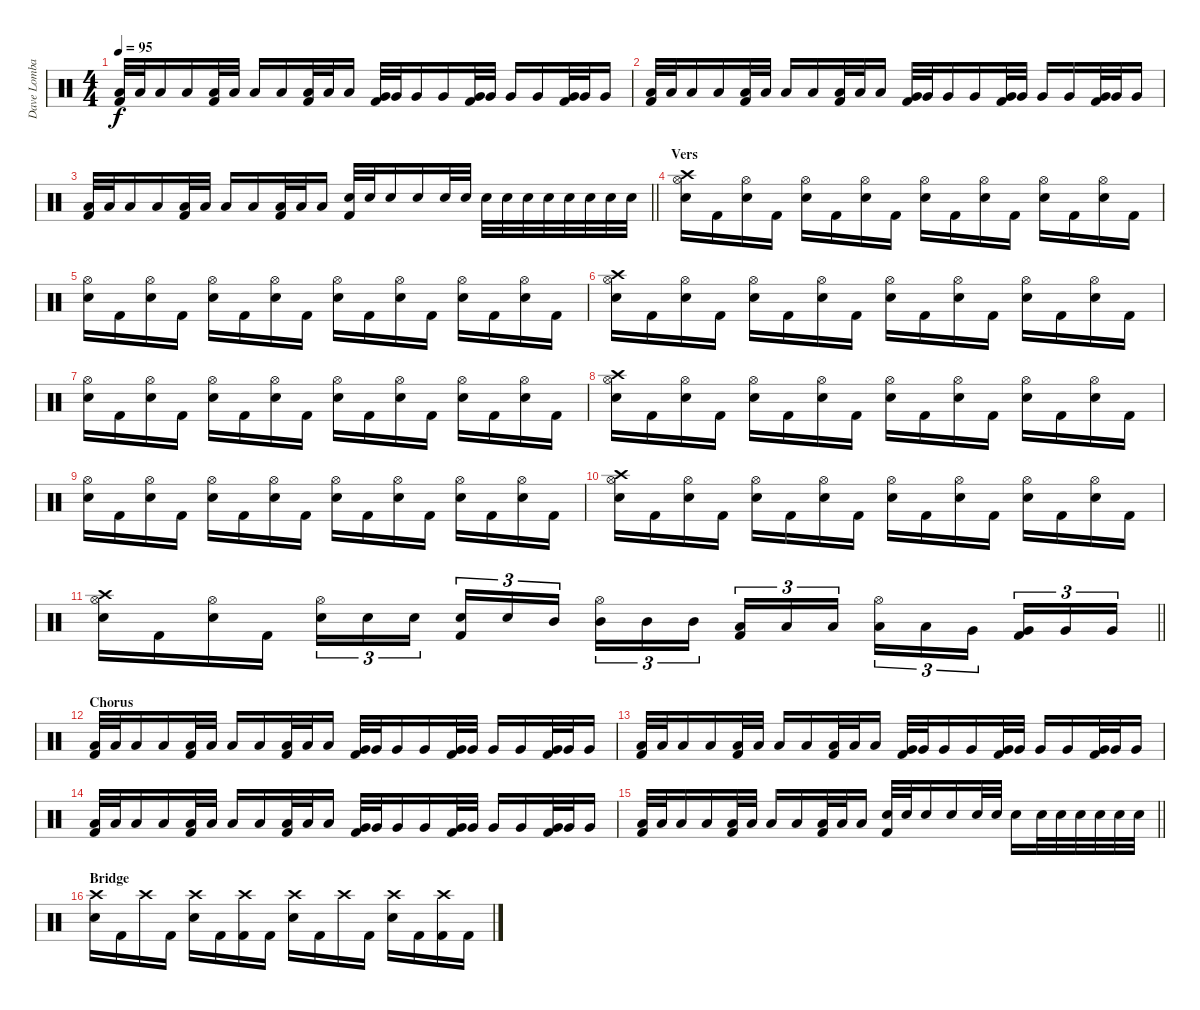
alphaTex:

\track ("Dave Lombardo" "Dave Lomba") {instrument percussion}
\staff {score}
\articulation defaults
\ts (4 4)
\tempo 95
\clef neutral
\ks c
("Low Tom (hit)" "Kick (hit) 2").32{dy f} "Low Tom (hit)".32 "Low Tom (hit)".16 "Low Tom (hit)".16 ("Low Tom (hit)" "Kick (hit) 2").32 "Low Tom (hit)".32 "Low Tom (hit)".16 "Low Tom (hit)".16 ("Low Tom (hit)" "Kick (hit) 2").32 "Low Tom (hit)".32 "Low Tom (hit)".16 ("Very Low Tom (hit)" "Kick (hit) 2").32 "Very Low Tom (hit)".32 "Very Low Tom (hit)".16 "Very Low Tom (hit)".16 ("Very Low Tom (hit)" "Kick (hit) 2").32 "Very Low Tom (hit)".32 "Very Low Tom (hit)".16 "Very Low Tom (hit)".16 ("Very Low Tom (hit)" "Kick (hit) 2").32 "Very Low Tom (hit)".32 "Very Low Tom (hit)".16 |
("Low Tom (hit)" "Kick (hit) 2").32 "Low Tom (hit)".32 "Low Tom (hit)".16 "Low Tom (hit)".16 ("Low Tom (hit)" "Kick (hit) 2").32 "Low Tom (hit)".32 "Low Tom (hit)".16 "Low Tom (hit)".16 ("Low Tom (hit)" "Kick (hit) 2").32 "Low Tom (hit)".32 "Low Tom (hit)".16 ("Very Low Tom (hit)" "Kick (hit) 2").32 "Very Low Tom (hit)".32 "Very Low Tom (hit)".16 "Very Low Tom (hit)".16 ("Very Low Tom (hit)" "Kick (hit) 2").32 "Very Low Tom (hit)".32 "Very Low Tom (hit)".16 "Very Low Tom (hit)".16 ("Very Low Tom (hit)" "Kick (hit) 2").32 "Very Low Tom (hit)".32 "Very Low Tom (hit)".16 |
\barLineRight lightlight
("Low Tom (hit)" "Kick (hit) 2").32 "Low Tom (hit)".32 "Low Tom (hit)".16 "Low Tom (hit)".16 ("Low Tom (hit)" "Kick (hit) 2").32 "Low Tom (hit)".32 "Low Tom (hit)".16 "Low Tom (hit)".16 ("Low Tom (hit)" "Kick (hit) 2").32 "Low Tom (hit)".32 "Low Tom (hit)".16 ("Snare (hit) 2" "Kick (hit) 2").32 "Snare (hit) 2".32 "Snare (hit) 2".16 "Snare (hit) 2".16 "Snare (hit) 2".32 "Snare (hit) 2".32 "Snare (hit) 2".32 "Snare (hit) 2".32 "Snare (hit) 2".32 "Snare (hit) 2".32 "Snare (hit) 2".32 "Snare (hit) 2".32 "Snare (hit) 2".32 "Snare (hit) 2".32 |
\section ("" "Vers")
("Crash high (hit)" "Hi-Hat (open)" "Snare (hit) 2").16 "Kick (hit) 2".16 ("Hi-Hat (open)" "Snare (hit) 2").16 "Kick (hit) 2".16 ("Hi-Hat (open)" "Snare (hit) 2").16 "Kick (hit) 2".16 ("Hi-Hat (open)" "Snare (hit) 2").16 "Kick (hit) 2".16 ("Hi-Hat (open)" "Snare (hit) 2").16 "Kick (hit) 2".16 ("Hi-Hat (open)" "Snare (hit) 2").16 "Kick (hit) 2".16 ("Hi-Hat (open)" "Snare (hit) 2").16 "Kick (hit) 2".16 ("Hi-Hat (open)" "Snare (hit) 2").16 "Kick (hit) 2".16 |
("Hi-Hat (open)" "Snare (hit) 2").16 "Kick (hit) 2".16 ("Hi-Hat (open)" "Snare (hit) 2").16 "Kick (hit) 2".16 ("Hi-Hat (open)" "Snare (hit) 2").16 "Kick (hit) 2".16 ("Hi-Hat (open)" "Snare (hit) 2").16 "Kick (hit) 2".16 ("Hi-Hat (open)" "Snare (hit) 2").16 "Kick (hit) 2".16 ("Hi-Hat (open)" "Snare (hit) 2").16 "Kick (hit) 2".16 ("Hi-Hat (open)" "Snare (hit) 2").16 "Kick (hit) 2".16 ("Hi-Hat (open)" "Snare (hit) 2").16 "Kick (hit) 2".16 |
("Crash high (hit)" "Hi-Hat (open)" "Snare (hit) 2").16 "Kick (hit) 2".16 ("Hi-Hat (open)" "Snare (hit) 2").16 "Kick (hit) 2".16 ("Hi-Hat (open)" "Snare (hit) 2").16 "Kick (hit) 2".16 ("Hi-Hat (open)" "Snare (hit) 2").16 "Kick (hit) 2".16 ("Hi-Hat (open)" "Snare (hit) 2").16 "Kick (hit) 2".16 ("Hi-Hat (open)" "Snare (hit) 2").16 "Kick (hit) 2".16 ("Hi-Hat (open)" "Snare (hit) 2").16 "Kick (hit) 2".16 ("Hi-Hat (open)" "Snare (hit) 2").16 "Kick (hit) 2".16 |
("Hi-Hat (open)" "Snare (hit) 2").16 "Kick (hit) 2".16 ("Hi-Hat (open)" "Snare (hit) 2").16 "Kick (hit) 2".16 ("Hi-Hat (open)" "Snare (hit) 2").16 "Kick (hit) 2".16 ("Hi-Hat (open)" "Snare (hit) 2").16 "Kick (hit) 2".16 ("Hi-Hat (open)" "Snare (hit) 2").16 "Kick (hit) 2".16 ("Hi-Hat (open)" "Snare (hit) 2").16 "Kick (hit) 2".16 ("Hi-Hat (open)" "Snare (hit) 2").16 "Kick (hit) 2".16 ("Hi-Hat (open)" "Snare (hit) 2").16 "Kick (hit) 2".16 |
("Crash high (hit)" "Hi-Hat (open)" "Snare (hit) 2").16 "Kick (hit) 2".16 ("Hi-Hat (open)" "Snare (hit) 2").16 "Kick (hit) 2".16 ("Hi-Hat (open)" "Snare (hit) 2").16 "Kick (hit) 2".16 ("Hi-Hat (open)" "Snare (hit) 2").16 "Kick (hit) 2".16 ("Hi-Hat (open)" "Snare (hit) 2").16 "Kick (hit) 2".16 ("Hi-Hat (open)" "Snare (hit) 2").16 "Kick (hit) 2".16 ("Hi-Hat (open)" "Snare (hit) 2").16 "Kick (hit) 2".16 ("Hi-Hat (open)" "Snare (hit) 2").16 "Kick (hit) 2".16 |
("Hi-Hat (open)" "Snare (hit) 2").16 "Kick (hit) 2".16 ("Hi-Hat (open)" "Snare (hit) 2").16 "Kick (hit) 2".16 ("Hi-Hat (open)" "Snare (hit) 2").16 "Kick (hit) 2".16 ("Hi-Hat (open)" "Snare (hit) 2").16 "Kick (hit) 2".16 ("Hi-Hat (open)" "Snare (hit) 2").16 "Kick (hit) 2".16 ("Hi-Hat (open)" "Snare (hit) 2").16 "Kick (hit) 2".16 ("Hi-Hat (open)" "Snare (hit) 2").16 "Kick (hit) 2".16 ("Hi-Hat (open)" "Snare (hit) 2").16 "Kick (hit) 2".16 |
("Crash high (hit)" "Hi-Hat (open)" "Snare (hit) 2").16 "Kick (hit) 2".16 ("Hi-Hat (open)" "Snare (hit) 2").16 "Kick (hit) 2".16 ("Hi-Hat (open)" "Snare (hit) 2").16 "Kick (hit) 2".16 ("Hi-Hat (open)" "Snare (hit) 2").16 "Kick (hit) 2".16 ("Hi-Hat (open)" "Snare (hit) 2").16 "Kick (hit) 2".16 ("Hi-Hat (open)" "Snare (hit) 2").16 "Kick (hit) 2".16 ("Hi-Hat (open)" "Snare (hit) 2").16 "Kick (hit) 2".16 ("Hi-Hat (open)" "Snare (hit) 2").16 "Kick (hit) 2".16 |
\barLineRight lightlight
("Crash high (hit)" "Hi-Hat (open)" "Snare (hit) 2").16 "Kick (hit) 2".16 ("Hi-Hat (open)" "Snare (hit) 2").16 "Kick (hit) 2".16 ("Hi-Hat (open)" "Snare (hit) 2").16{tu (3 2)} "Snare (hit) 2".16{tu (3 2)} "Snare (hit) 2".16{tu (3 2) beam splitsecondary} ("Snare (hit) 2" "Kick (hit) 2").16{tu (3 2)} "Snare (hit) 2".16{tu (3 2)} "Mid Tom (hit)".16{tu (3 2)} ("Hi-Hat (open)" "Mid Tom (hit)").16{tu (3 2)} "Mid Tom (hit)".16{tu (3 2)} "Mid Tom (hit)".16{tu (3 2) beam splitsecondary} ("Low Tom (hit)" "Kick (hit) 2").16{tu (3 2)} "Low Tom (hit)".16{tu (3 2)} "Low Tom (hit)".16{tu (3 2)} ("Hi-Hat (open)" "Low Tom (hit)").16{tu (3 2)} "Low Tom (hit)".16{tu (3 2)} "Very Low Tom (hit)".16{tu (3 2) beam splitsecondary} ("Very Low Tom (hit)" "Kick (hit) 2").16{tu (3 2)} "Very Low Tom (hit)".16{tu (3 2)} "Very Low Tom (hit)".16{tu (3 2)} |
\section ("" "Chorus")
("Low Tom (hit)" "Kick (hit) 2").32 "Low Tom (hit)".32 "Low Tom (hit)".16 "Low Tom (hit)".16 ("Low Tom (hit)" "Kick (hit) 2").32 "Low Tom (hit)".32 "Low Tom (hit)".16 "Low Tom (hit)".16 ("Low Tom (hit)" "Kick (hit) 2").32 "Low Tom (hit)".32 "Low Tom (hit)".16 ("Very Low Tom (hit)" "Kick (hit) 2").32 "Very Low Tom (hit)".32 "Very Low Tom (hit)".16 "Very Low Tom (hit)".16 ("Very Low Tom (hit)" "Kick (hit) 2").32 "Very Low Tom (hit)".32 "Very Low Tom (hit)".16 "Very Low Tom (hit)".16 ("Very Low Tom (hit)" "Kick (hit) 2").32 "Very Low Tom (hit)".32 "Very Low Tom (hit)".16 |
("Low Tom (hit)" "Kick (hit) 2").32 "Low Tom (hit)".32 "Low Tom (hit)".16 "Low Tom (hit)".16 ("Low Tom (hit)" "Kick (hit) 2").32 "Low Tom (hit)".32 "Low Tom (hit)".16 "Low Tom (hit)".16 ("Low Tom (hit)" "Kick (hit) 2").32 "Low Tom (hit)".32 "Low Tom (hit)".16 ("Very Low Tom (hit)" "Kick (hit) 2").32 "Very Low Tom (hit)".32 "Very Low Tom (hit)".16 "Very Low Tom (hit)".16 ("Very Low Tom (hit)" "Kick (hit) 2").32 "Very Low Tom (hit)".32 "Very Low Tom (hit)".16 "Very Low Tom (hit)".16 ("Very Low Tom (hit)" "Kick (hit) 2").32 "Very Low Tom (hit)".32 "Very Low Tom (hit)".16 |
("Low Tom (hit)" "Kick (hit) 2").32 "Low Tom (hit)".32 "Low Tom (hit)".16 "Low Tom (hit)".16 ("Low Tom (hit)" "Kick (hit) 2").32 "Low Tom (hit)".32 "Low Tom (hit)".16 "Low Tom (hit)".16 ("Low Tom (hit)" "Kick (hit) 2").32 "Low Tom (hit)".32 "Low Tom (hit)".16 ("Very Low Tom (hit)" "Kick (hit) 2").32 "Very Low Tom (hit)".32 "Very Low Tom (hit)".16 "Very Low Tom (hit)".16 ("Very Low Tom (hit)" "Kick (hit) 2").32 "Very Low Tom (hit)".32 "Very Low Tom (hit)".16 "Very Low Tom (hit)".16 ("Very Low Tom (hit)" "Kick (hit) 2").32 "Very Low Tom (hit)".32 "Very Low Tom (hit)".16 |
\barLineRight lightlight
("Low Tom (hit)" "Kick (hit) 2").32 "Low Tom (hit)".32 "Low Tom (hit)".16 "Low Tom (hit)".16 ("Low Tom (hit)" "Kick (hit) 2").32 "Low Tom (hit)".32 "Low Tom (hit)".16 "Low Tom (hit)".16 ("Low Tom (hit)" "Kick (hit) 2").32 "Low Tom (hit)".32 "Low Tom (hit)".16 ("Snare (hit) 2" "Kick (hit) 2").32 "Snare (hit) 2".32 "Snare (hit) 2".16 "Snare (hit) 2".16 "Snare (hit) 2".32 "Snare (hit) 2".32 "Snare (hit) 2".16 "Snare (hit) 2".32 "Snare (hit) 2".32 "Snare (hit) 2".32 "Snare (hit) 2".32 "Snare (hit) 2".32 "Snare (hit) 2".32 |
\section ("" "Bridge")
("Crash high (hit)" "Snare (hit) 2").16 "Kick (hit) 2".16 "Crash high (hit)".16 "Kick (hit) 2".16 ("Crash high (hit)" "Snare (hit) 2").16 "Kick (hit) 2".16 ("Crash high (hit)" "Kick (hit) 2").16 "Kick (hit) 2".16 ("Crash high (hit)" "Snare (hit) 2").16 "Kick (hit) 2".16 "Crash high (hit)".16 "Kick (hit) 2".16 ("Crash high (hit)" "Snare (hit) 2").16 "Kick (hit) 2".16 ("Crash high (hit)" "Kick (hit) 2").16 "Kick (hit) 2".16
